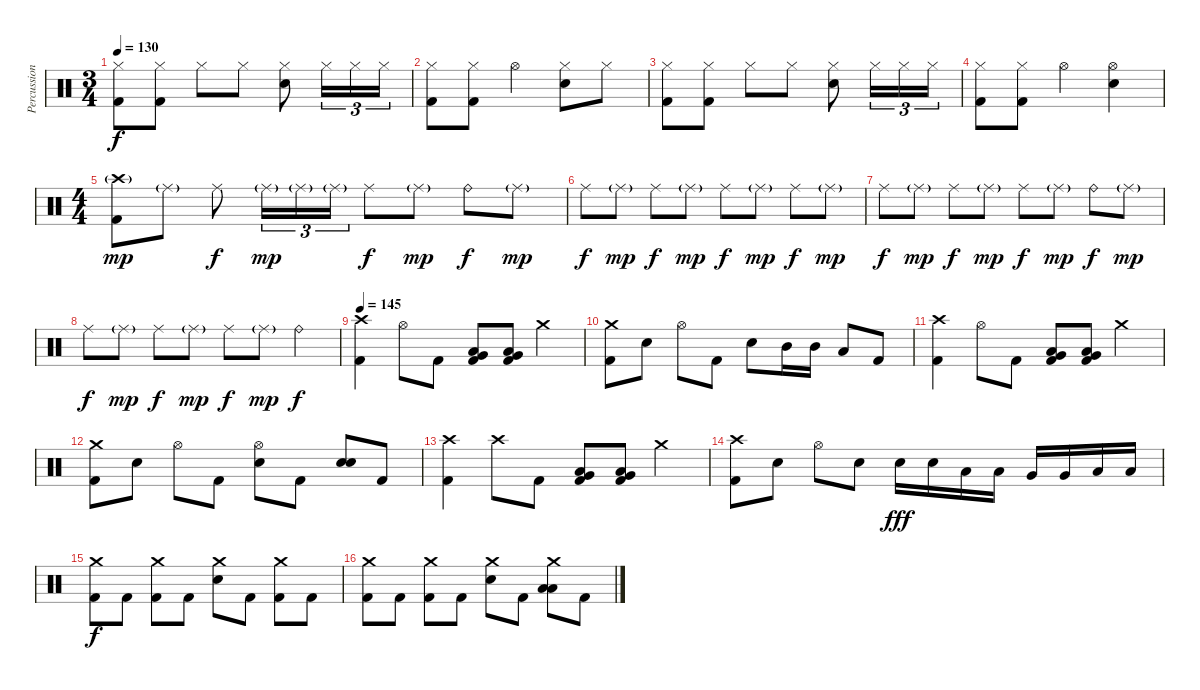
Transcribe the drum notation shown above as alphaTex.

\track ("Percussion" "Percussion") {instrument percussion}
\staff {score}
\articulation defaults
\ts (3 4)
\tempo 130
\clef neutral
\ks c
("Hi-Hat (closed)" "Kick (hit) 2").8{dy f} ("Hi-Hat (closed)" "Kick (hit) 2").8 "Hi-Hat (closed)".8 "Hi-Hat (closed)".8 ("Hi-Hat (closed)" "Electric Snare (hit)").8 "Hi-Hat (closed)".16{tu (3 2)} "Hi-Hat (closed)".16{tu (3 2)} "Hi-Hat (closed)".16{tu (3 2)} |
("Hi-Hat (closed)" "Kick (hit) 2").8 ("Hi-Hat (closed)" "Kick (hit) 2").8 "Hi-Hat (open)".4 ("Hi-Hat (closed)" "Electric Snare (hit)").8 "Hi-Hat (closed)".8 |
("Hi-Hat (closed)" "Kick (hit) 2").8 ("Hi-Hat (closed)" "Kick (hit) 2").8 "Hi-Hat (closed)".8 "Hi-Hat (closed)".8 ("Hi-Hat (closed)" "Electric Snare (hit)").8 "Hi-Hat (closed)".16{tu (3 2)} "Hi-Hat (closed)".16{tu (3 2)} "Hi-Hat (closed)".16{tu (3 2)} |
("Hi-Hat (closed)" "Kick (hit) 2").8 ("Hi-Hat (closed)" "Kick (hit) 2").8 "Hi-Hat (open)".4 ("Hi-Hat (open)" "Electric Snare (hit)").4 |
\ts (4 4)
("Crash high (hit)"{g} "Kick (hit) 2").8{dy mp} "Ride (middle)"{g}.8 "Ride (middle)".8{dy f} "Ride (middle)"{g}.16{tu (3 2) dy mp} "Ride (middle)"{g}.16{tu (3 2)} "Ride (middle)"{g}.16{tu (3 2)} "Ride (middle)".8{dy f} "Ride (middle)"{g}.8{dy mp} "Ride (bell)".8{dy f} "Ride (middle)"{g}.8{dy mp} |
"Ride (middle)".8{dy f} "Ride (middle)"{g}.8{dy mp} "Ride (middle)".8{dy f} "Ride (middle)"{g}.8{dy mp} "Ride (middle)".8{dy f} "Ride (middle)"{g}.8{dy mp} "Ride (middle)".8{dy f} "Ride (middle)"{g}.8{dy mp} |
"Ride (middle)".8{dy f} "Ride (middle)"{g}.8{dy mp} "Ride (middle)".8{dy f} "Ride (middle)"{g}.8{dy mp} "Ride (middle)".8{dy f} "Ride (middle)"{g}.8{dy mp} "Ride (bell)".8{dy f} "Ride (middle)"{g}.8{dy mp} |
"Ride (middle)".8{dy f} "Ride (middle)"{g}.8{dy mp} "Ride (middle)".8{dy f} "Ride (middle)"{g}.8{dy mp} "Ride (middle)".8{dy f} "Ride (middle)"{g}.8{dy mp} "Ride (bell)".4{dy f} |
\tempo 145
("Crash high (hit)" "Kick (hit) 2").4{volume 16} "Hi-Hat (open)".8 "Kick (hit) 2".8 ("Very Low Tom (hit)" "Low Tom (hit)" "Kick (hit) 2").8 ("Very Low Tom (hit)" "Low Tom (hit)" "Kick (hit) 2").8 "Crash medium (hit)".4 |
("Crash medium (hit)" "Kick (hit) 2").8 "Electric Snare (hit)".8 "Hi-Hat (open)".8 "Kick (hit) 2".8 "Electric Snare (hit)".8 "Mid Tom (hit)".16 "Mid Tom (hit)".16 "Low Tom (hit)".8 "Kick (hit) 2".8 |
("Crash high (hit)" "Kick (hit) 2").4 "Hi-Hat (open)".8 "Kick (hit) 2".8 ("Very Low Tom (hit)" "Low Tom (hit)" "Kick (hit) 2").8 ("Very Low Tom (hit)" "Low Tom (hit)" "Kick (hit) 2").8 "Crash medium (hit)".4 |
("Crash medium (hit)" "Kick (hit) 2").8 "Electric Snare (hit)".8 "Hi-Hat (open)".8 "Kick (hit) 2".8 ("Hi-Hat (open)" "Electric Snare (hit)").8 "Kick (hit) 2".8 ("Electric Snare (hit)" "Electric Snare (hit)").8{bd 240} "Kick (hit) 2".8 |
("Crash high (hit)" "Kick (hit) 2").4 "Crash high (hit)".8 "Kick (hit) 2".8 ("Very Low Tom (hit)" "Low Tom (hit)" "Kick (hit) 2").8 ("Very Low Tom (hit)" "Low Tom (hit)" "Kick (hit) 2").8 "Crash medium (hit)".4 |
("Crash high (hit)" "Kick (hit) 2").8 "Electric Snare (hit)".8 "Hi-Hat (open)".8 "Electric Snare (hit)".8 "Electric Snare (hit)".16{dy fff} "Electric Snare (hit)".16 "Low Tom (hit)".16 "Low Tom (hit)".16 "Very Low Tom (hit)".16 "Very Low Tom (hit)".16 "Low Floor Tom (hit)".16 "Low Floor Tom (hit)".16 |
("Crash medium (hit)" "Kick (hit) 2").8{dy f} "Kick (hit) 2".8 ("Crash medium (hit)" "Kick (hit) 2").8 "Kick (hit) 2".8 ("Crash medium (hit)" "Electric Snare (hit)").8 "Kick (hit) 2".8 ("Crash medium (hit)" "Kick (hit) 2").8 "Kick (hit) 2".8 |
("Crash medium (hit)" "Kick (hit) 2").8 "Kick (hit) 2".8 ("Crash medium (hit)" "Kick (hit) 2").8 "Kick (hit) 2".8 ("Crash medium (hit)" "Electric Snare (hit)").8 "Kick (hit) 2".8 ("Crash medium (hit)" "Low Tom (hit)" "Low Tom (hit)").8 "Kick (hit) 2".8
